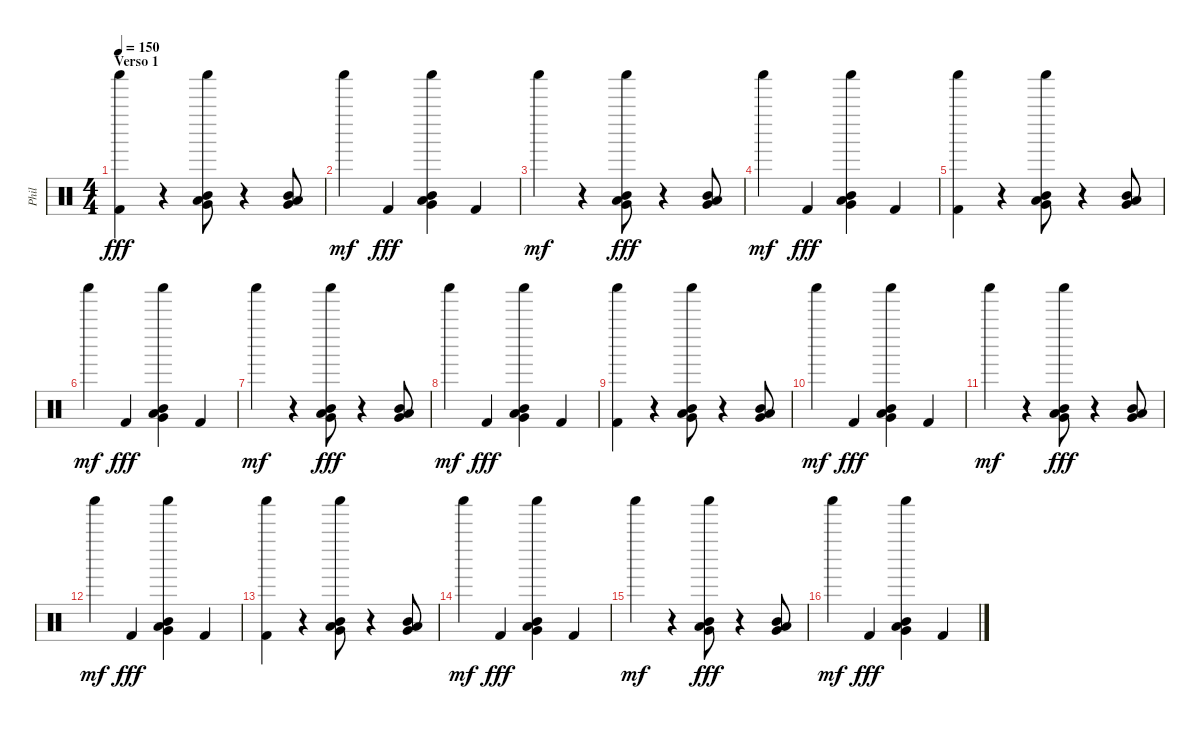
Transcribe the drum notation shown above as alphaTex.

\track ("Phil" "Phil") {instrument percussion}
\staff {score}
\articulation defaults
\ts (4 4)
\section ("" "Verso 1")
\tempo 150
\clef neutral
\ks c
("Shaker (hit)" "Kick (hit) 2").4{dy fff} r.4 ("Shaker (hit)" "Mid Tom (hit)" "Very Low Tom (hit)" "Low Floor Tom (hit)").8 r.4 ("Very Low Tom (hit)" "Mid Tom (hit)" "Low Floor Tom (hit)").8 |
"Shaker (hit)".4{dy mf} "Kick (hit) 2".4{dy fff} ("Shaker (hit)" "Mid Tom (hit)" "Very Low Tom (hit)" "Low Floor Tom (hit)").4 "Kick (hit) 2".4 |
"Shaker (hit)".4{dy mf} r.4 ("Shaker (hit)" "Mid Tom (hit)" "Very Low Tom (hit)" "Low Floor Tom (hit)").8{dy fff} r.4 ("Mid Tom (hit)" "Very Low Tom (hit)" "Low Floor Tom (hit)").8 |
"Shaker (hit)".4{dy mf} "Kick (hit) 2".4{dy fff} ("Shaker (hit)" "Very Low Tom (hit)" "Low Floor Tom (hit)" "Mid Tom (hit)").4 "Kick (hit) 2".4 |
("Shaker (hit)" "Kick (hit) 2").4 r.4 ("Shaker (hit)" "Mid Tom (hit)" "Low Floor Tom (hit)" "Very Low Tom (hit)").8 r.4 ("Very Low Tom (hit)" "Mid Tom (hit)" "Low Floor Tom (hit)").8 |
"Shaker (hit)".4{dy mf} "Kick (hit) 2".4{dy fff} ("Shaker (hit)" "Mid Tom (hit)" "Very Low Tom (hit)" "Low Floor Tom (hit)").4 "Kick (hit) 2".4 |
"Shaker (hit)".4{dy mf} r.4 ("Shaker (hit)" "Mid Tom (hit)" "Very Low Tom (hit)" "Low Floor Tom (hit)").8{dy fff} r.4 ("Mid Tom (hit)" "Very Low Tom (hit)" "Low Floor Tom (hit)").8 |
"Shaker (hit)".4{dy mf} "Kick (hit) 2".4{dy fff} ("Shaker (hit)" "Very Low Tom (hit)" "Low Floor Tom (hit)" "Mid Tom (hit)").4 "Kick (hit) 2".4 |
("Shaker (hit)" "Kick (hit) 2").4 r.4 ("Shaker (hit)" "Mid Tom (hit)" "Very Low Tom (hit)" "Low Floor Tom (hit)").8 r.4 ("Very Low Tom (hit)" "Mid Tom (hit)" "Low Floor Tom (hit)").8 |
"Shaker (hit)".4{dy mf} "Kick (hit) 2".4{dy fff} ("Shaker (hit)" "Mid Tom (hit)" "Very Low Tom (hit)" "Low Floor Tom (hit)").4 "Kick (hit) 2".4 |
"Shaker (hit)".4{dy mf} r.4 ("Shaker (hit)" "Mid Tom (hit)" "Very Low Tom (hit)" "Low Floor Tom (hit)").8{dy fff} r.4 ("Mid Tom (hit)" "Very Low Tom (hit)" "Low Floor Tom (hit)").8 |
"Shaker (hit)".4{dy mf} "Kick (hit) 2".4{dy fff} ("Shaker (hit)" "Very Low Tom (hit)" "Low Floor Tom (hit)" "Mid Tom (hit)").4 "Kick (hit) 2".4 |
("Shaker (hit)" "Kick (hit) 2").4 r.4 ("Shaker (hit)" "Mid Tom (hit)" "Low Floor Tom (hit)" "Very Low Tom (hit)").8 r.4 ("Very Low Tom (hit)" "Mid Tom (hit)" "Low Floor Tom (hit)").8 |
"Shaker (hit)".4{dy mf} "Kick (hit) 2".4{dy fff} ("Shaker (hit)" "Mid Tom (hit)" "Very Low Tom (hit)" "Low Floor Tom (hit)").4 "Kick (hit) 2".4 |
"Shaker (hit)".4{dy mf} r.4 ("Shaker (hit)" "Mid Tom (hit)" "Very Low Tom (hit)" "Low Floor Tom (hit)").8{dy fff} r.4 ("Mid Tom (hit)" "Very Low Tom (hit)" "Low Floor Tom (hit)").8 |
"Shaker (hit)".4{dy mf} "Kick (hit) 2".4{dy fff} ("Shaker (hit)" "Very Low Tom (hit)" "Low Floor Tom (hit)" "Mid Tom (hit)").4 "Kick (hit) 2".4
